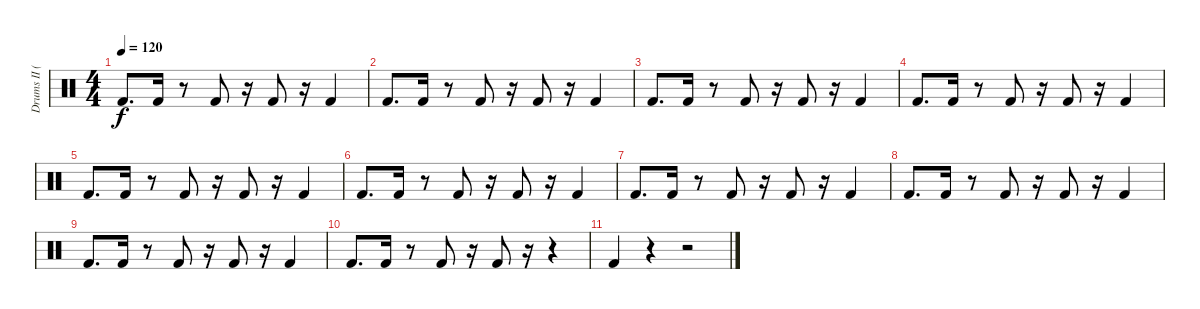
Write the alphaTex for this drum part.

\track ("Drums II (Ruka)" "Drums II (") {instrument percussion}
\staff {score}
\articulation defaults
\ts (4 4)
\tempo 120
\clef neutral
\ks c "Kick (hit) 2".8{d dy f} "Kick (hit) 2".16
r.8 "Kick (hit) 2".8 r.16 "Kick (hit) 2".8 r.16 "Kick (hit) 2".4 |
"Kick (hit) 2".8{d} "Kick (hit) 2".16 r.8 "Kick (hit) 2".8 r.16 "Kick (hit) 2".8 r.16 "Kick (hit) 2".4 |
"Kick (hit) 2".8{d} "Kick (hit) 2".16 r.8 "Kick (hit) 2".8 r.16 "Kick (hit) 2".8 r.16 "Kick (hit) 2".4 |
"Kick (hit) 2".8{d} "Kick (hit) 2".16 r.8 "Kick (hit) 2".8 r.16 "Kick (hit) 2".8 r.16 "Kick (hit) 2".4 |
"Kick (hit) 2".8{d} "Kick (hit) 2".16 r.8 "Kick (hit) 2".8 r.16 "Kick (hit) 2".8 r.16 "Kick (hit) 2".4 |
"Kick (hit) 2".8{d} "Kick (hit) 2".16 r.8 "Kick (hit) 2".8 r.16 "Kick (hit) 2".8 r.16 "Kick (hit) 2".4 |
"Kick (hit) 2".8{d} "Kick (hit) 2".16 r.8 "Kick (hit) 2".8 r.16 "Kick (hit) 2".8 r.16 "Kick (hit) 2".4 |
"Kick (hit) 2".8{d} "Kick (hit) 2".16 r.8 "Kick (hit) 2".8 r.16 "Kick (hit) 2".8 r.16 "Kick (hit) 2".4 |
"Kick (hit) 2".8{d} "Kick (hit) 2".16 r.8 "Kick (hit) 2".8 r.16 "Kick (hit) 2".8 r.16 "Kick (hit) 2".4 |
"Kick (hit) 2".8{d} "Kick (hit) 2".16 r.8 "Kick (hit) 2".8 r.16 "Kick (hit) 2".8 r.16 r.4 |
"Kick (hit) 2".4 r.4 r.2
